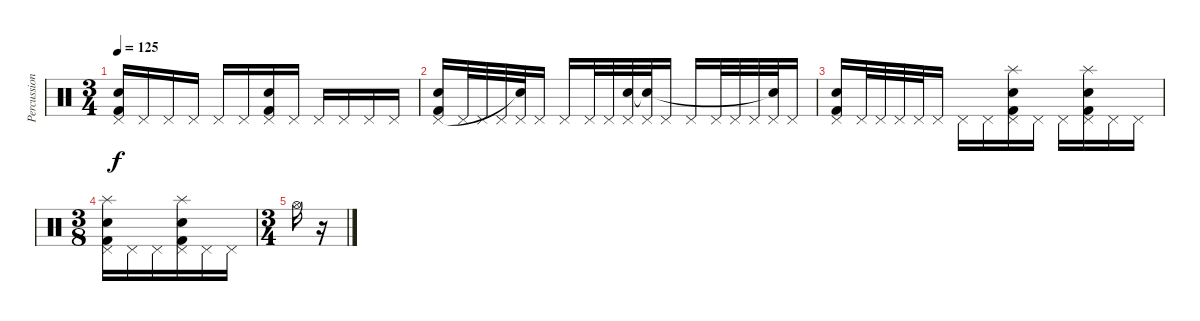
\track ("Percussion" "Percussion") {instrument percussion}
\staff {score}
\articulation defaults
\ts (3 4)
\tempo 125
\clef neutral
\ks c
("Kick (hit) 2" "Pedal Hi-Hat (hit)" "Snare (hit) 2").16{dy f} "Pedal Hi-Hat (hit)".16 "Pedal Hi-Hat (hit)".16 "Pedal Hi-Hat (hit)".16 "Pedal Hi-Hat (hit)".16 "Pedal Hi-Hat (hit)".16 ("Kick (hit) 2" "Pedal Hi-Hat (hit)" "Snare (hit) 2").16 "Pedal Hi-Hat (hit)".16 "Pedal Hi-Hat (hit)".16 "Pedal Hi-Hat (hit)".16 "Pedal Hi-Hat (hit)".16 "Pedal Hi-Hat (hit)".16 |
("Kick (hit) 2" "Pedal Hi-Hat (hit)" "Snare (hit) 2").16 "Pedal Hi-Hat (hit)".32 "Pedal Hi-Hat (hit)".32 "Pedal Hi-Hat (hit)".32 ("Pedal Hi-Hat (hit)" "Snare (hit)"{t}).32 "Pedal Hi-Hat (hit)".16 "Pedal Hi-Hat (hit)".16 "Pedal Hi-Hat (hit)".32 "Pedal Hi-Hat (hit)".32 ("Pedal Hi-Hat (hit)" "Snare (hit) 2").32 ("Pedal Hi-Hat (hit)" "Snare (hit)"{t}).32 "Pedal Hi-Hat (hit)".16 "Pedal Hi-Hat (hit)".16 "Pedal Hi-Hat (hit)".32 "Pedal Hi-Hat (hit)".32 "Pedal Hi-Hat (hit)".32 ("Pedal Hi-Hat (hit)" "Snare (hit)"{t}).32 "Pedal Hi-Hat (hit)".16 |
("Kick (hit) 2" "Pedal Hi-Hat (hit)" "Snare (hit) 2").16 "Pedal Hi-Hat (hit)".32 "Pedal Hi-Hat (hit)".32 "Pedal Hi-Hat (hit)".32 "Pedal Hi-Hat (hit)".32 "Pedal Hi-Hat (hit)".16 "Pedal Hi-Hat (hit)".16 "Pedal Hi-Hat (hit)".16 ("Kick (hit) 2" "Pedal Hi-Hat (hit)" "Snare (hit) 2" "Splash (hit)").16 "Pedal Hi-Hat (hit)".16 "Pedal Hi-Hat (hit)".16 ("Kick (hit) 2" "Pedal Hi-Hat (hit)" "Snare (hit) 2" "Splash (hit)").16 "Pedal Hi-Hat (hit)".16 "Pedal Hi-Hat (hit)".16 |
\ts (3 8)
("Kick (hit) 2" "Pedal Hi-Hat (hit)" "Snare (hit) 2" "Splash (hit)").16 "Pedal Hi-Hat (hit)".16 "Pedal Hi-Hat (hit)".16 ("Kick (hit) 2" "Pedal Hi-Hat (hit)" "Snare (hit) 2" "Splash (hit)").16 "Pedal Hi-Hat (hit)".16 "Pedal Hi-Hat (hit)".16 |
\ts (3 4)
"Hi-Hat (open)".16 r.16
